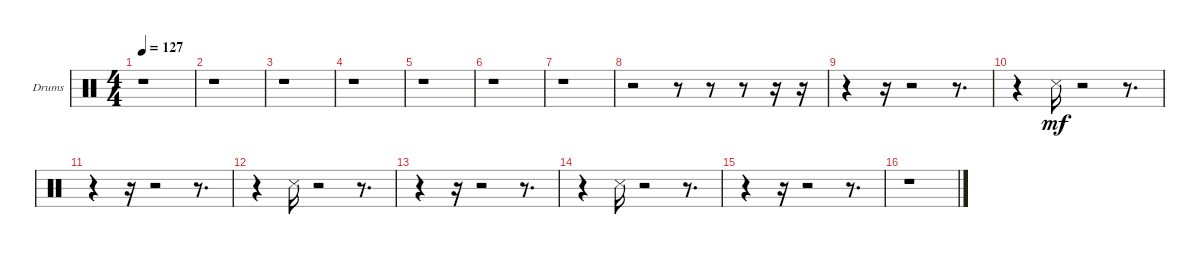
\bracketExtendMode groupsimilarinstruments
\firstSystemTrackNameOrientation horizontal
\otherSystemsTrackNameOrientation horizontal
\track ("Drum Snare" "Drums") {instrument percussion}
\staff {score}
\articulation defaults
\ts (4 4)
\tempo 127
\clef neutral
\ks c
r.1{dy mf} |
r.1 |
r.1 |
r.1 |
r.1 |
r.1 |
r.1 |
r.2 r.8 r.8 r.8 r.16 r.16 |
r.4 r.16 r.2 r.8{d} |
r.4 "Snare (side stick) 3".16 r.2 r.8{d} |
r.4 r.16 r.2 r.8{d} |
r.4 "Snare (side stick) 3".16 r.2 r.8{d} |
r.4 r.16 r.2 r.8{d} |
r.4 "Snare (side stick) 3".16 r.2 r.8{d} |
r.4 r.16 r.2 r.8{d} |
r.1
